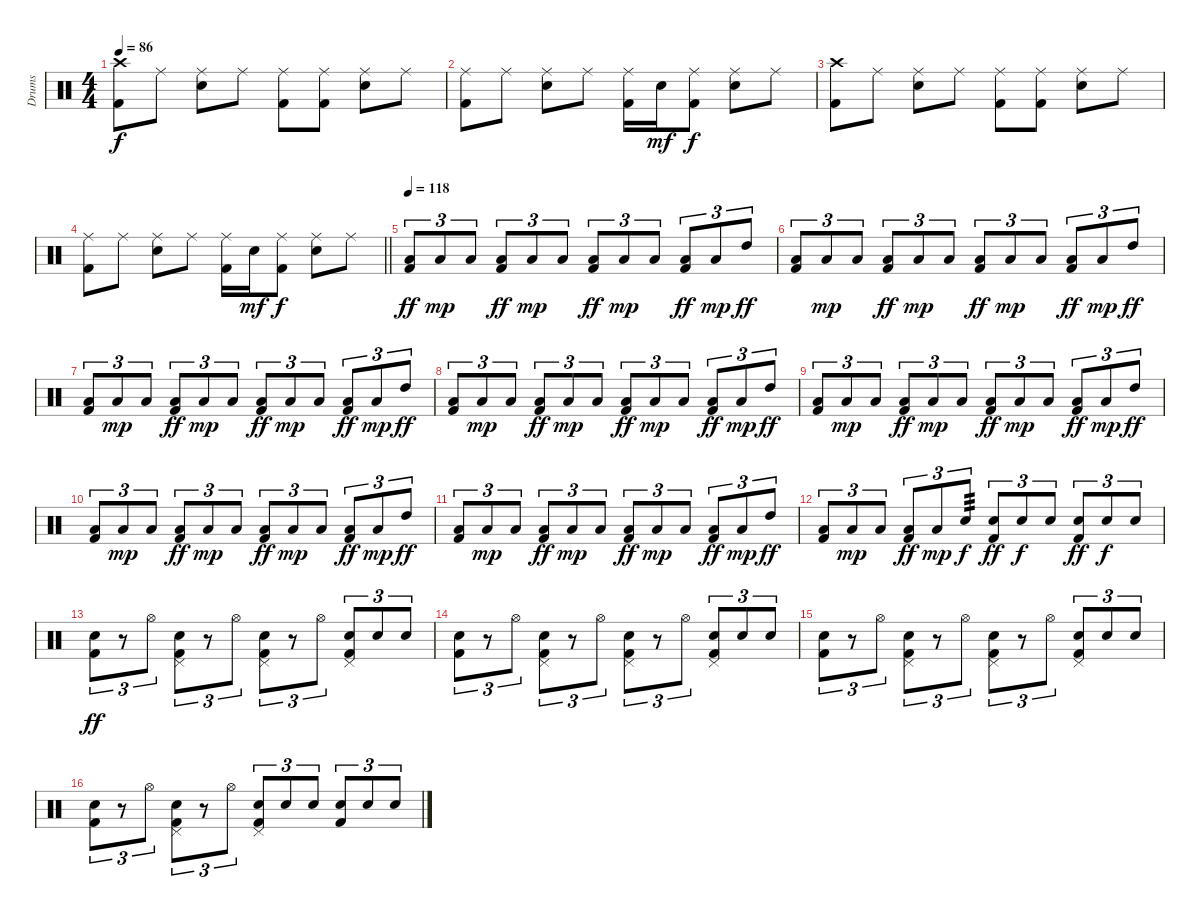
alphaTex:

\track ("Drums" "Drums") {instrument percussion}
\staff {score}
\articulation defaults
\ts (4 4)
\tempo 86
\clef neutral
\ks c
("Crash high (hit)" "Kick (hit) 2").8{dy f} "Ride (middle)".8 ("Ride (middle)" "Snare (hit) 2").8 "Ride (middle)".8 ("Ride (middle)" "Kick (hit) 2").8 ("Ride (middle)" "Kick (hit) 2").8 ("Ride (middle)" "Snare (hit) 2").8 "Ride (middle)".8 |
("Ride (middle)" "Kick (hit) 2").8 "Ride (middle)".8 ("Ride (middle)" "Snare (hit) 2").8 "Ride (middle)".8 ("Ride (middle)" "Kick (hit) 2").16 "Snare (hit) 2".16{dy mf} ("Ride (middle)" "Kick (hit) 2").8{dy f} ("Ride (middle)" "Snare (hit) 2").8 "Ride (middle)".8 |
("Crash high (hit)" "Kick (hit) 2").8 "Ride (middle)".8 ("Ride (middle)" "Snare (hit) 2").8 "Ride (middle)".8 ("Ride (middle)" "Kick (hit) 2").8 ("Ride (middle)" "Kick (hit) 2").8 ("Ride (middle)" "Snare (hit) 2").8 "Ride (middle)".8 |
\barLineRight lightlight
("Ride (middle)" "Kick (hit) 2").8 "Ride (middle)".8 ("Ride (middle)" "Snare (hit) 2").8 "Ride (middle)".8 ("Ride (middle)" "Kick (hit) 2").16 "Snare (hit) 2".16{dy mf} ("Ride (middle)" "Kick (hit) 2").8{dy f} ("Ride (middle)" "Snare (hit) 2").8 "Ride (middle)".8 |
\tempo 118
("Low Floor Tom (hit)" "Kick (hit) 2").8{tu (3 2) dy ff} "Low Floor Tom (hit)".8{tu (3 2) dy mp} "Low Floor Tom (hit)".8{tu (3 2)} ("Low Floor Tom (hit)" "Kick (hit) 2").8{tu (3 2) dy ff} "Low Floor Tom (hit)".8{tu (3 2) dy mp} "Low Floor Tom (hit)".8{tu (3 2)} ("Low Floor Tom (hit)" "Kick (hit) 2").8{tu (3 2) dy ff} "Low Floor Tom (hit)".8{tu (3 2) dy mp} "Low Floor Tom (hit)".8{tu (3 2)} ("Low Tom (hit)" "Kick (hit) 2").8{tu (3 2) dy ff} "Low Floor Tom (hit)".8{tu (3 2) dy mp} "High Tom (hit)".8{tu (3 2) dy ff} |
("Low Floor Tom (hit)" "Kick (hit) 2").8{tu (3 2)} "Low Floor Tom (hit)".8{tu (3 2) dy mp} "Low Floor Tom (hit)".8{tu (3 2)} ("Low Floor Tom (hit)" "Kick (hit) 2").8{tu (3 2) dy ff} "Low Floor Tom (hit)".8{tu (3 2) dy mp} "Low Floor Tom (hit)".8{tu (3 2)} ("Low Floor Tom (hit)" "Kick (hit) 2").8{tu (3 2) dy ff} "Low Floor Tom (hit)".8{tu (3 2) dy mp} "Low Floor Tom (hit)".8{tu (3 2)} ("Low Tom (hit)" "Kick (hit) 2").8{tu (3 2) dy ff} "Low Floor Tom (hit)".8{tu (3 2) dy mp} "High Tom (hit)".8{tu (3 2) dy ff} |
("Low Floor Tom (hit)" "Kick (hit) 2").8{tu (3 2)} "Low Floor Tom (hit)".8{tu (3 2) dy mp} "Low Floor Tom (hit)".8{tu (3 2)} ("Low Floor Tom (hit)" "Kick (hit) 2").8{tu (3 2) dy ff} "Low Floor Tom (hit)".8{tu (3 2) dy mp} "Low Floor Tom (hit)".8{tu (3 2)} ("Low Floor Tom (hit)" "Kick (hit) 2").8{tu (3 2) dy ff} "Low Floor Tom (hit)".8{tu (3 2) dy mp} "Low Floor Tom (hit)".8{tu (3 2)} ("Low Tom (hit)" "Kick (hit) 2").8{tu (3 2) dy ff} "Low Floor Tom (hit)".8{tu (3 2) dy mp} "High Tom (hit)".8{tu (3 2) dy ff} |
("Low Floor Tom (hit)" "Kick (hit) 2").8{tu (3 2)} "Low Floor Tom (hit)".8{tu (3 2) dy mp} "Low Floor Tom (hit)".8{tu (3 2)} ("Low Floor Tom (hit)" "Kick (hit) 2").8{tu (3 2) dy ff} "Low Floor Tom (hit)".8{tu (3 2) dy mp} "Low Floor Tom (hit)".8{tu (3 2)} ("Low Floor Tom (hit)" "Kick (hit) 2").8{tu (3 2) dy ff} "Low Floor Tom (hit)".8{tu (3 2) dy mp} "Low Floor Tom (hit)".8{tu (3 2)} ("Low Tom (hit)" "Kick (hit) 2").8{tu (3 2) dy ff} "Low Floor Tom (hit)".8{tu (3 2) dy mp} "High Tom (hit)".8{tu (3 2) dy ff} |
("Low Floor Tom (hit)" "Kick (hit) 2").8{tu (3 2)} "Low Floor Tom (hit)".8{tu (3 2) dy mp} "Low Floor Tom (hit)".8{tu (3 2)} ("Low Floor Tom (hit)" "Kick (hit) 2").8{tu (3 2) dy ff} "Low Floor Tom (hit)".8{tu (3 2) dy mp} "Low Floor Tom (hit)".8{tu (3 2)} ("Low Floor Tom (hit)" "Kick (hit) 2").8{tu (3 2) dy ff} "Low Floor Tom (hit)".8{tu (3 2) dy mp} "Low Floor Tom (hit)".8{tu (3 2)} ("Low Tom (hit)" "Kick (hit) 2").8{tu (3 2) dy ff} "Low Floor Tom (hit)".8{tu (3 2) dy mp} "High Tom (hit)".8{tu (3 2) dy ff} |
("Low Floor Tom (hit)" "Kick (hit) 2").8{tu (3 2)} "Low Floor Tom (hit)".8{tu (3 2) dy mp} "Low Floor Tom (hit)".8{tu (3 2)} ("Low Floor Tom (hit)" "Kick (hit) 2").8{tu (3 2) dy ff} "Low Floor Tom (hit)".8{tu (3 2) dy mp} "Low Floor Tom (hit)".8{tu (3 2)} ("Low Floor Tom (hit)" "Kick (hit) 2").8{tu (3 2) dy ff} "Low Floor Tom (hit)".8{tu (3 2) dy mp} "Low Floor Tom (hit)".8{tu (3 2)} ("Low Tom (hit)" "Kick (hit) 2").8{tu (3 2) dy ff} "Low Floor Tom (hit)".8{tu (3 2) dy mp} "High Tom (hit)".8{tu (3 2) dy ff} |
("Low Floor Tom (hit)" "Kick (hit) 2").8{tu (3 2)} "Low Floor Tom (hit)".8{tu (3 2) dy mp} "Low Floor Tom (hit)".8{tu (3 2)} ("Low Floor Tom (hit)" "Kick (hit) 2").8{tu (3 2) dy ff} "Low Floor Tom (hit)".8{tu (3 2) dy mp} "Low Floor Tom (hit)".8{tu (3 2)} ("Low Floor Tom (hit)" "Kick (hit) 2").8{tu (3 2) dy ff} "Low Floor Tom (hit)".8{tu (3 2) dy mp} "Low Floor Tom (hit)".8{tu (3 2)} ("Low Tom (hit)" "Kick (hit) 2").8{tu (3 2) dy ff} "Low Floor Tom (hit)".8{tu (3 2) dy mp} "High Tom (hit)".8{tu (3 2) dy ff} |
("Low Floor Tom (hit)" "Kick (hit) 2").8{tu (3 2)} "Low Floor Tom (hit)".8{tu (3 2) dy mp} "Low Floor Tom (hit)".8{tu (3 2)} ("Low Floor Tom (hit)" "Kick (hit) 2").8{tu (3 2) dy ff} "Low Floor Tom (hit)".8{tu (3 2) dy mp} "Snare (hit) 2".8{tu (3 2) tp 3 dy f} ("Snare (hit) 2" "Kick (hit) 2").8{tu (3 2) dy ff} "Snare (hit) 2".8{tu (3 2) dy f} "Snare (hit) 2".8{tu (3 2)} ("Snare (hit) 2" "Kick (hit) 2").8{tu (3 2) dy ff} "Snare (hit) 2".8{tu (3 2) dy f} "Snare (hit) 2".8{tu (3 2)} |
("Snare (hit) 2" "Kick (hit) 2").8{tu (3 2) dy ff} r.8{tu (3 2)} "Hi-Hat (open)".8{tu (3 2)} ("Pedal Hi-Hat (hit)" "Snare (hit) 2" "Kick (hit) 2").8{tu (3 2)} r.8{tu (3 2)} "Hi-Hat (open)".8{tu (3 2)} ("Pedal Hi-Hat (hit)" "Snare (hit) 2" "Kick (hit) 2").8{tu (3 2)} r.8{tu (3 2)} "Hi-Hat (open)".8{tu (3 2)} ("Pedal Hi-Hat (hit)" "Snare (hit) 2" "Kick (hit) 2").8{tu (3 2)} "Snare (hit) 2".8{tu (3 2)} "Snare (hit) 2".8{tu (3 2)} |
("Snare (hit) 2" "Kick (hit) 2").8{tu (3 2)} r.8{tu (3 2)} "Hi-Hat (open)".8{tu (3 2)} ("Pedal Hi-Hat (hit)" "Snare (hit) 2" "Kick (hit) 2").8{tu (3 2)} r.8{tu (3 2)} "Hi-Hat (open)".8{tu (3 2)} ("Pedal Hi-Hat (hit)" "Snare (hit) 2" "Kick (hit) 2").8{tu (3 2)} r.8{tu (3 2)} "Hi-Hat (open)".8{tu (3 2)} ("Pedal Hi-Hat (hit)" "Snare (hit) 2" "Kick (hit) 2").8{tu (3 2)} "Snare (hit) 2".8{tu (3 2)} "Snare (hit) 2".8{tu (3 2)} |
("Snare (hit) 2" "Kick (hit) 2").8{tu (3 2)} r.8{tu (3 2)} "Hi-Hat (open)".8{tu (3 2)} ("Pedal Hi-Hat (hit)" "Snare (hit) 2" "Kick (hit) 2").8{tu (3 2)} r.8{tu (3 2)} "Hi-Hat (open)".8{tu (3 2)} ("Pedal Hi-Hat (hit)" "Snare (hit) 2" "Kick (hit) 2").8{tu (3 2)} r.8{tu (3 2)} "Hi-Hat (open)".8{tu (3 2)} ("Pedal Hi-Hat (hit)" "Snare (hit) 2" "Kick (hit) 2").8{tu (3 2)} "Snare (hit) 2".8{tu (3 2)} "Snare (hit) 2".8{tu (3 2)} |
("Snare (hit) 2" "Kick (hit) 2").8{tu (3 2)} r.8{tu (3 2)} "Hi-Hat (open)".8{tu (3 2)} ("Pedal Hi-Hat (hit)" "Snare (hit) 2" "Kick (hit) 2").8{tu (3 2)} r.8{tu (3 2)} "Hi-Hat (open)".8{tu (3 2)} ("Pedal Hi-Hat (hit)" "Snare (hit) 2" "Kick (hit) 2").8{tu (3 2)} "Snare (hit) 2".8{tu (3 2)} "Snare (hit) 2".8{tu (3 2)} ("Snare (hit) 2" "Kick (hit) 2").8{tu (3 2)} "Snare (hit) 2".8{tu (3 2)} "Snare (hit) 2".8{tu (3 2)}
